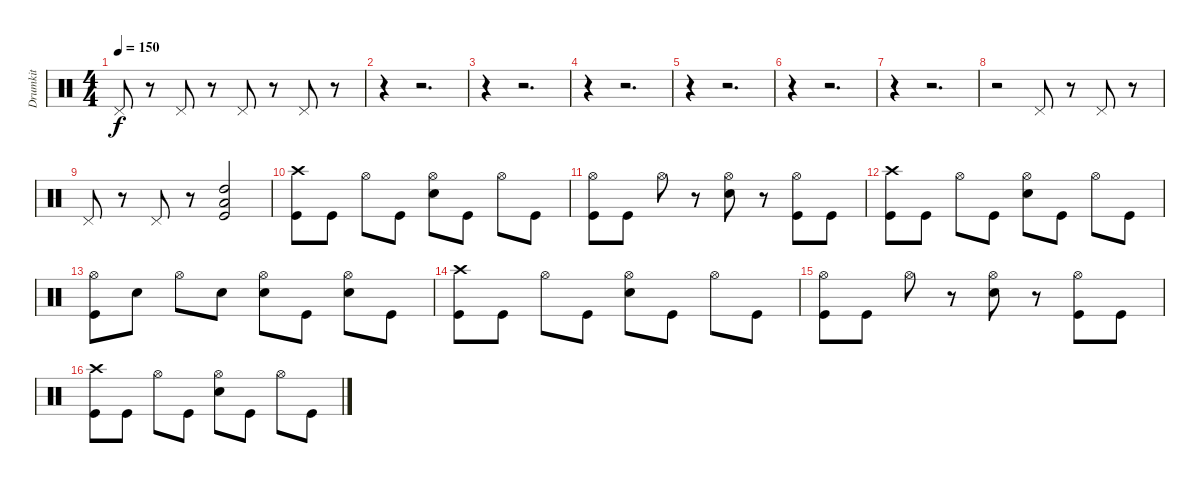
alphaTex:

\track ("Drumkit" "Drumkit") {instrument percussion}
\staff {score}
\articulation defaults
\ts (4 4)
\tempo 150
\clef neutral
\ks c "Pedal Hi-Hat (hit)".8{dy f}
r.8 "Pedal Hi-Hat (hit)".8 r.8 "Pedal Hi-Hat (hit)".8 r.8 "Pedal Hi-Hat (hit)".8 r.8 |
r.4 r.2{d} |
r.4 r.2{d} |
r.4 r.2{d} |
r.4 r.2{d} |
r.4 r.2{d} |
r.4 r.2{d} |
r.2 "Pedal Hi-Hat (hit)".8 r.8 "Pedal Hi-Hat (hit)".8 r.8 |
"Pedal Hi-Hat (hit)".8 r.8 "Pedal Hi-Hat (hit)".8 r.8 ("High Tom (hit)" "Low Tom (hit)" "Kick (hit)").2 |
("Kick (hit)" "Crash high (hit)").8 "Kick (hit)".8 "Hi-Hat (open)".8 "Kick (hit)".8 ("Snare (hit) 2" "Hi-Hat (open)").8 "Kick (hit)".8 "Hi-Hat (open)".8 "Kick (hit)".8 |
("Kick (hit)" "Hi-Hat (open)").8 "Kick (hit)".8 "Hi-Hat (open)".8 r.8 ("Snare (hit) 2" "Hi-Hat (open)").8 r.8 ("Kick (hit)" "Hi-Hat (open)").8 "Kick (hit)".8 |
("Kick (hit)" "Crash high (hit)").8 "Kick (hit)".8 "Hi-Hat (open)".8 "Kick (hit)".8 ("Snare (hit) 2" "Hi-Hat (open)").8 "Kick (hit)".8 "Hi-Hat (open)".8 "Kick (hit)".8 |
("Kick (hit)" "Hi-Hat (open)").8 "Snare (hit) 2".8 "Hi-Hat (open)".8 "Snare (hit) 2".8 ("Snare (hit) 2" "Hi-Hat (open)").8 "Kick (hit)".8 ("Snare (hit) 2" "Hi-Hat (open)").8 "Kick (hit)".8 |
("Kick (hit)" "Crash high (hit)").8 "Kick (hit)".8 "Hi-Hat (open)".8 "Kick (hit)".8 ("Snare (hit) 2" "Hi-Hat (open)").8 "Kick (hit)".8 "Hi-Hat (open)".8 "Kick (hit)".8 |
("Kick (hit)" "Hi-Hat (open)").8 "Kick (hit)".8 "Hi-Hat (open)".8 r.8 ("Snare (hit) 2" "Hi-Hat (open)").8 r.8 ("Kick (hit)" "Hi-Hat (open)").8 "Kick (hit)".8 |
("Kick (hit)" "Crash high (hit)").8 "Kick (hit)".8 "Hi-Hat (open)".8 "Kick (hit)".8 ("Snare (hit) 2" "Hi-Hat (open)").8 "Kick (hit)".8 "Hi-Hat (open)".8 "Kick (hit)".8
